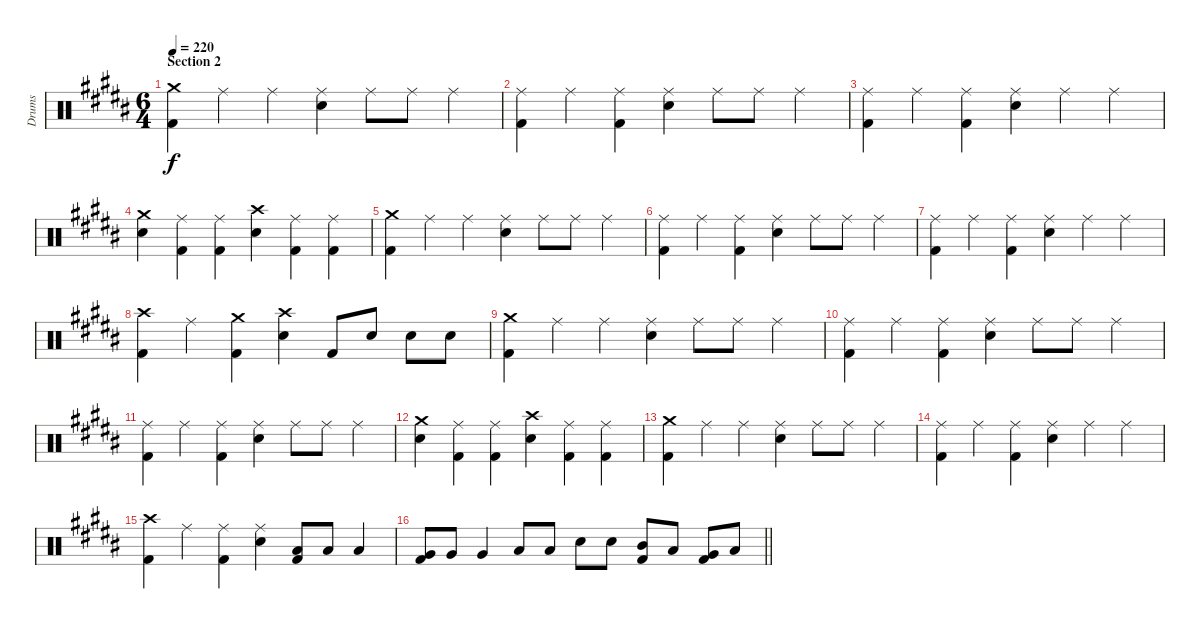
\track ("Drums" "Drums") {instrument percussion}
\staff {score}
\articulation defaults
\ts (6 4)
\section ("" "Section 2")
\tempo 220
\clef neutral
\ks g#minor
("Crash medium (hit)" "Kick (hit) 2").4{dy f} "Ride (middle)".4 "Ride (middle)".4 ("Ride (middle)" "Electric Snare (hit)").4 "Ride (middle)".8 "Ride (middle)".8 "Ride (middle)".4 |
("Ride (middle)" "Kick (hit) 2").4 "Ride (middle)".4 ("Ride (middle)" "Kick (hit) 2").4 ("Ride (middle)" "Electric Snare (hit)").4 "Ride (middle)".8 "Ride (middle)".8 "Ride (middle)".4 |
("Ride (middle)" "Kick (hit) 2").4 "Ride (middle)".4 ("Ride (middle)" "Kick (hit) 2").4 ("Ride (middle)" "Electric Snare (hit)").4 "Ride (middle)".4 "Ride (middle)".4 |
("Crash medium (hit)" "Electric Snare (hit)").4 ("Ride (middle)" "Kick (hit) 2").4 ("Ride (middle)" "Kick (hit) 2").4 ("Crash high (hit)" "Electric Snare (hit)").4 ("Ride (middle)" "Kick (hit) 2").4 ("Ride (middle)" "Kick (hit) 2").4 |
("Crash medium (hit)" "Kick (hit) 2").4 "Ride (middle)".4 "Ride (middle)".4 ("Ride (middle)" "Electric Snare (hit)").4 "Ride (middle)".8 "Ride (middle)".8 "Ride (middle)".4 |
("Ride (middle)" "Kick (hit) 2").4 "Ride (middle)".4 ("Ride (middle)" "Kick (hit) 2").4 ("Ride (middle)" "Electric Snare (hit)").4 "Ride (middle)".8 "Ride (middle)".8 "Ride (middle)".4 |
("Ride (middle)" "Kick (hit) 2").4 "Ride (middle)".4 ("Ride (middle)" "Kick (hit) 2").4 ("Ride (middle)" "Electric Snare (hit)").4 "Ride (middle)".4 "Ride (middle)".4 |
("Crash high (hit)" "Kick (hit) 2").4 "Ride (middle)".4 ("Crash medium (hit)" "Kick (hit) 2").4 ("Crash high (hit)" "Electric Snare (hit)").4 "Kick (hit) 2".8 "Electric Snare (hit)".8 "Electric Snare (hit)".8 "Electric Snare (hit)".8 |
("Crash medium (hit)" "Kick (hit) 2").4 "Ride (middle)".4 "Ride (middle)".4 ("Ride (middle)" "Electric Snare (hit)").4 "Ride (middle)".8 "Ride (middle)".8 "Ride (middle)".4 |
("Ride (middle)" "Kick (hit) 2").4 "Ride (middle)".4 ("Ride (middle)" "Kick (hit) 2").4 ("Ride (middle)" "Electric Snare (hit)").4 "Ride (middle)".8 "Ride (middle)".8 "Ride (middle)".4 |
("Ride (middle)" "Kick (hit) 2").4 "Ride (middle)".4 ("Ride (middle)" "Kick (hit) 2").4 ("Ride (middle)" "Electric Snare (hit)").4 "Ride (middle)".8 "Ride (middle)".8 "Ride (middle)".4 |
("Crash medium (hit)" "Electric Snare (hit)").4 ("Ride (middle)" "Kick (hit) 2").4 ("Ride (middle)" "Kick (hit) 2").4 ("Crash high (hit)" "Electric Snare (hit)").4 ("Ride (middle)" "Kick (hit) 2").4 ("Ride (middle)" "Kick (hit) 2").4 |
("Crash medium (hit)" "Kick (hit) 2").4 "Ride (middle)".4 "Ride (middle)".4 ("Ride (middle)" "Electric Snare (hit)").4 "Ride (middle)".8 "Ride (middle)".8 "Ride (middle)".4 |
("Ride (middle)" "Kick (hit) 2").4 "Ride (middle)".4 ("Ride (middle)" "Kick (hit) 2").4 ("Ride (middle)" "Electric Snare (hit)").4 "Ride (middle)".4 "Ride (middle)".4 |
("Crash high (hit)" "Kick (hit) 2").4 "Ride (middle)".4 ("Ride (middle)" "Kick (hit) 2").4 ("Ride (middle)" "Electric Snare (hit)").4 ("Low Floor Tom (hit)" "Kick (hit) 2").8 "Low Floor Tom (hit)".8 "Low Floor Tom (hit)".4 |
\barLineRight lightlight
("Very Low Tom (hit)" "Kick (hit) 2").8 "Very Low Tom (hit)".8 "Very Low Tom (hit)".4 "Low Tom (hit)".8 "Low Tom (hit)".8 "Electric Snare (hit)".8 "Electric Snare (hit)".8 ("Mid Tom (hit)" "Kick (hit) 2").8 "Low Tom (hit)".8 ("Very Low Tom (hit)" "Kick (hit) 2").8 "Low Floor Tom (hit)".8
